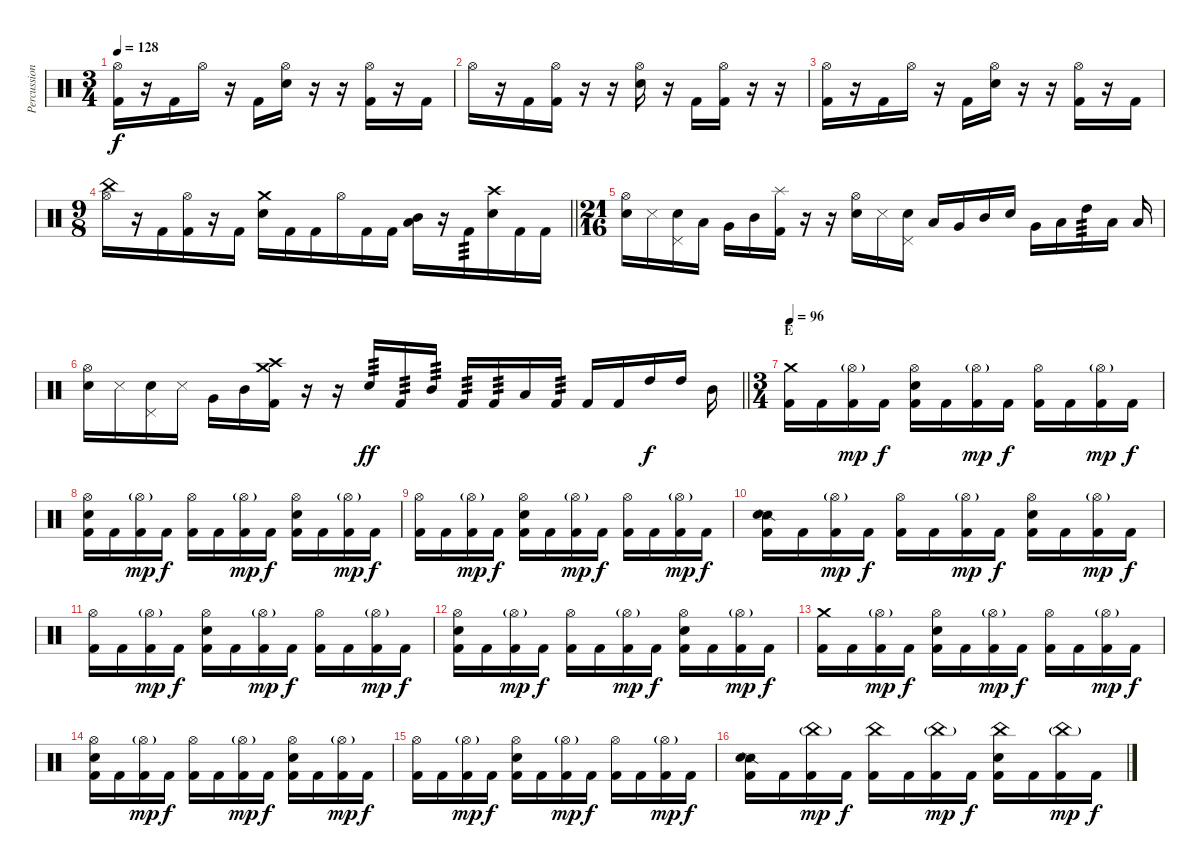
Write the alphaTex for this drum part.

\track ("Percussion" "Percussion") {instrument percussion}
\staff {score}
\articulation defaults
\ts (3 4)
\tempo 128
\clef neutral
\ks c
("Hi-Hat (open)" "Kick (hit) 2").16{dy f} r.16 "Kick (hit) 2".16 "Hi-Hat (open)".16 r.16 "Kick (hit) 2".16 ("Hi-Hat (open)" "Snare (hit) 2").16 r.16 r.16 ("Hi-Hat (open)" "Kick (hit) 2").16 r.16 "Kick (hit) 2".16 |
"Hi-Hat (open)".16 r.16 "Kick (hit) 2".16 ("Hi-Hat (open)" "Kick (hit) 2").16 r.16 r.16 ("Hi-Hat (open)" "Snare (hit) 2").16 r.16 "Kick (hit) 2".16 ("Hi-Hat (open)" "Kick (hit) 2").16 r.16 r.16 |
("Hi-Hat (open)" "Kick (hit) 2").16 r.16 "Kick (hit) 2".16 "Hi-Hat (open)".16 r.16 "Kick (hit) 2".16 ("Hi-Hat (open)" "Snare (hit) 2").16 r.16 r.16 ("Hi-Hat (open)" "Kick (hit) 2").16 r.16 "Kick (hit) 2".16 |
\ts (9 8)
\barLineRight lightlight
("China (hit)" "Hi-Hat (open)").16 r.16 "Kick (hit) 2".16 ("Hi-Hat (open)" "Kick (hit) 2").16 r.16 "Kick (hit) 2".16 ("Crash medium (hit)" "Snare (hit) 2").16 "Kick (hit) 2".16 "Kick (hit) 2".16 "Hi-Hat (open)".16 "Kick (hit) 2".16 "Kick (hit) 2".16 ("Mid Tom (hit)" "Low Tom (hit)").16{bu 60} r.16 "Kick (hit) 2".16{tp 3} ("Crash high (hit)" "Snare (hit) 2").16 "Kick (hit) 2".16 "Kick (hit) 2".16 |
\ts (21 16)
("Hi-Hat (open)" "Snare (hit) 2").16 "Metronome (hit)".16 ("Pedal Hi-Hat (hit)" "Snare (hit) 2").16 "Low Tom (hit)".16 "Very Low Tom (hit)".16 "Mid Tom (hit)".16 ("Splash (hit)" "Kick (hit) 2").16 r.16 r.16 ("Hi-Hat (open)" "Snare (hit) 2").16 "Metronome (hit)".16 ("Pedal Hi-Hat (hit)" "Snare (hit) 2").16 "Low Tom (hit)".16 "Very Low Tom (hit)".16 "Mid Tom (hit)".16 "Snare (hit) 2".16 "Very Low Tom (hit)".16 "Low Floor Tom (hit)".16 "High Tom (hit)".16{tp 3} "Low Tom (hit)".16 "Low Floor Tom (hit)".16 |
\barLineRight lightlight
("Hi-Hat (open)" "Snare (hit) 2").16 "Metronome (hit)".16 ("Pedal Hi-Hat (hit)" "Snare (hit) 2").16 "Metronome (hit)".16 "Very Low Tom (hit)".16 "Mid Tom (hit)".16 ("Crash medium (hit)" "Crash high (hit)" "Kick (hit) 2").16 r.16 r.16 "Snare (hit) 2".16{tp 3 dy ff} "Kick (hit) 2".16{tp 3} "Mid Tom (hit)".16{tp 3} "Kick (hit) 2".16{tp 3} "Kick (hit) 2".16{tp 3} "Low Tom (hit)".16 "Kick (hit) 2".16{tp 3} "Kick (hit) 2".16 "Kick (hit) 2".16 "High Tom (hit)".16{dy f} "High Tom (hit)".16 "Mid Tom (hit)".16 |
\ts (3 4)
\section ("" "E")
\tempo 96
("Crash medium (hit)" "Kick (hit) 2").16 "Kick (hit) 2".16 ("Hi-Hat (open)"{g} "Kick (hit) 2").16{dy mp} "Kick (hit) 2".16{dy f} ("Hi-Hat (open)" "Snare (hit) 2" "Kick (hit) 2").16 "Kick (hit) 2".16 ("Hi-Hat (open)"{g} "Kick (hit) 2").16{dy mp} "Kick (hit) 2".16{dy f} ("Hi-Hat (open)" "Kick (hit) 2").16 "Kick (hit) 2".16 ("Hi-Hat (open)"{g} "Kick (hit) 2").16{dy mp} "Kick (hit) 2".16{dy f} |
("Hi-Hat (open)" "Snare (hit) 2" "Kick (hit) 2").16 "Kick (hit) 2".16 ("Hi-Hat (open)"{g} "Kick (hit) 2").16{dy mp} "Kick (hit) 2".16{dy f} ("Hi-Hat (open)" "Kick (hit) 2").16 "Kick (hit) 2".16 ("Hi-Hat (open)"{g} "Kick (hit) 2").16{dy mp} "Kick (hit) 2".16{dy f} ("Hi-Hat (open)" "Snare (hit) 2" "Kick (hit) 2").16 "Kick (hit) 2".16 ("Hi-Hat (open)"{g} "Kick (hit) 2").16{dy mp} "Kick (hit) 2".16{dy f} |
("Hi-Hat (open)" "Kick (hit) 2").16 "Kick (hit) 2".16 ("Hi-Hat (open)"{g} "Kick (hit) 2").16{dy mp} "Kick (hit) 2".16{dy f} ("Hi-Hat (open)" "Snare (hit) 2" "Kick (hit) 2").16 "Kick (hit) 2".16 ("Hi-Hat (open)"{g} "Kick (hit) 2").16{dy mp} "Kick (hit) 2".16{dy f} ("Hi-Hat (open)" "Kick (hit) 2").16 "Kick (hit) 2".16 ("Hi-Hat (open)"{g} "Kick (hit) 2").16{dy mp} "Kick (hit) 2".16{dy f} |
("Snare (side stick) 2" "Snare (hit) 2" "Kick (hit) 2").16 "Kick (hit) 2".16 ("Hi-Hat (open)"{g} "Kick (hit) 2").16{dy mp} "Kick (hit) 2".16{dy f} ("Hi-Hat (open)" "Kick (hit) 2").16 "Kick (hit) 2".16 ("Hi-Hat (open)"{g} "Kick (hit) 2").16{dy mp} "Kick (hit) 2".16{dy f} ("Hi-Hat (open)" "Snare (hit) 2" "Kick (hit) 2").16 "Kick (hit) 2".16 ("Hi-Hat (open)"{g} "Kick (hit) 2").16{dy mp} "Kick (hit) 2".16{dy f} |
("Hi-Hat (open)" "Kick (hit) 2").16 "Kick (hit) 2".16 ("Hi-Hat (open)"{g} "Kick (hit) 2").16{dy mp} "Kick (hit) 2".16{dy f} ("Hi-Hat (open)" "Snare (hit) 2" "Kick (hit) 2").16 "Kick (hit) 2".16 ("Hi-Hat (open)"{g} "Kick (hit) 2").16{dy mp} "Kick (hit) 2".16{dy f} ("Hi-Hat (open)" "Kick (hit) 2").16 "Kick (hit) 2".16 ("Hi-Hat (open)"{g} "Kick (hit) 2").16{dy mp} "Kick (hit) 2".16{dy f} |
("Hi-Hat (open)" "Snare (hit) 2" "Kick (hit) 2").16 "Kick (hit) 2".16 ("Hi-Hat (open)"{g} "Kick (hit) 2").16{dy mp} "Kick (hit) 2".16{dy f} ("Hi-Hat (open)" "Kick (hit) 2").16 "Kick (hit) 2".16 ("Hi-Hat (open)"{g} "Kick (hit) 2").16{dy mp} "Kick (hit) 2".16{dy f} ("Hi-Hat (open)" "Snare (hit) 2" "Kick (hit) 2").16 "Kick (hit) 2".16 ("Hi-Hat (open)"{g} "Kick (hit) 2").16{dy mp} "Kick (hit) 2".16{dy f} |
("Crash medium (hit)" "Kick (hit) 2").16 "Kick (hit) 2".16 ("Hi-Hat (open)"{g} "Kick (hit) 2").16{dy mp} "Kick (hit) 2".16{dy f} ("Hi-Hat (open)" "Snare (hit) 2" "Kick (hit) 2").16 "Kick (hit) 2".16 ("Hi-Hat (open)"{g} "Kick (hit) 2").16{dy mp} "Kick (hit) 2".16{dy f} ("Hi-Hat (open)" "Kick (hit) 2").16 "Kick (hit) 2".16 ("Hi-Hat (open)"{g} "Kick (hit) 2").16{dy mp} "Kick (hit) 2".16{dy f} |
("Hi-Hat (open)" "Snare (hit) 2" "Kick (hit) 2").16 "Kick (hit) 2".16 ("Hi-Hat (open)"{g} "Kick (hit) 2").16{dy mp} "Kick (hit) 2".16{dy f} ("Hi-Hat (open)" "Kick (hit) 2").16 "Kick (hit) 2".16 ("Hi-Hat (open)"{g} "Kick (hit) 2").16{dy mp} "Kick (hit) 2".16{dy f} ("Hi-Hat (open)" "Snare (hit) 2" "Kick (hit) 2").16 "Kick (hit) 2".16 ("Hi-Hat (open)"{g} "Kick (hit) 2").16{dy mp} "Kick (hit) 2".16{dy f} |
("Hi-Hat (open)" "Kick (hit) 2").16 "Kick (hit) 2".16 ("Hi-Hat (open)"{g} "Kick (hit) 2").16{dy mp} "Kick (hit) 2".16{dy f} ("Hi-Hat (open)" "Snare (hit) 2" "Kick (hit) 2").16 "Kick (hit) 2".16 ("Hi-Hat (open)"{g} "Kick (hit) 2").16{dy mp} "Kick (hit) 2".16{dy f} ("Hi-Hat (open)" "Kick (hit) 2").16 "Kick (hit) 2".16 ("Hi-Hat (open)"{g} "Kick (hit) 2").16{dy mp} "Kick (hit) 2".16{dy f} |
("Snare (side stick) 2" "Snare (hit) 2" "Kick (hit) 2").16 "Kick (hit) 2".16 ("China (hit)"{g} "Kick (hit) 2").16{dy mp} "Kick (hit) 2".16{dy f} ("China (hit)" "Kick (hit) 2").16 "Kick (hit) 2".16 ("China (hit)"{g} "Kick (hit) 2").16{dy mp} "Kick (hit) 2".16{dy f} ("China (hit)" "Snare (hit) 2" "Kick (hit) 2").16 "Kick (hit) 2".16 ("China (hit)"{g} "Kick (hit) 2").16{dy mp} "Kick (hit) 2".16{dy f}
